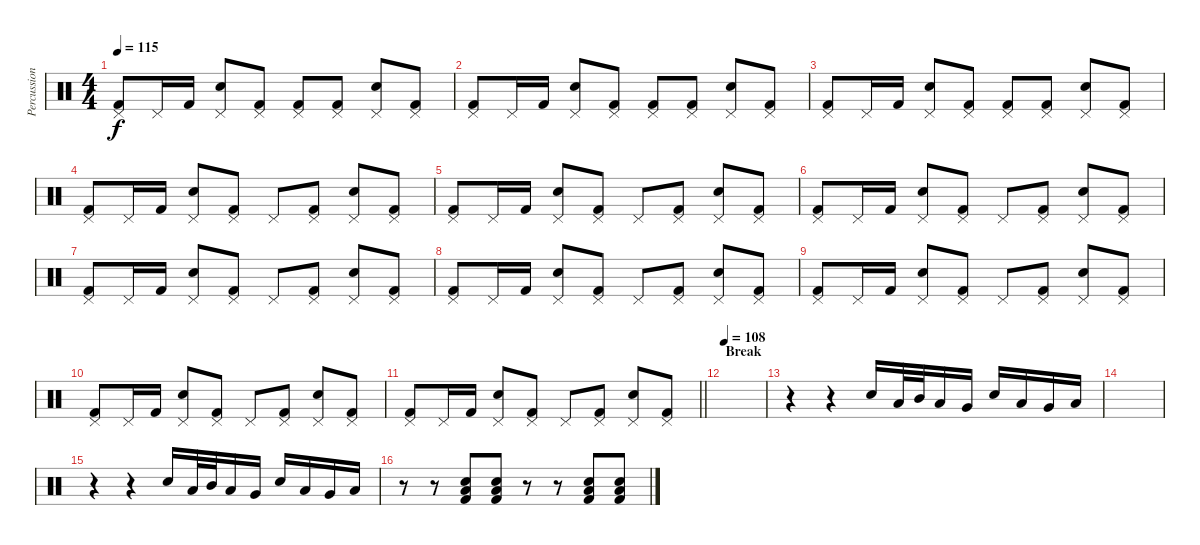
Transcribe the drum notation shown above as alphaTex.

\track ("Percussion" "Percussion") {instrument percussion}
\staff {score}
\articulation defaults
\ts (4 4)
\tempo 115
\clef neutral
\ks c
("Pedal Hi-Hat (hit)" "Kick (hit) 2").8{dy f} "Pedal Hi-Hat (hit)".16 "Kick (hit) 2".16 ("Pedal Hi-Hat (hit)" "Electric Snare (hit)").8 ("Pedal Hi-Hat (hit)" "Kick (hit) 2").8 ("Pedal Hi-Hat (hit)" "Kick (hit) 2").8 ("Pedal Hi-Hat (hit)" "Kick (hit) 2").8 ("Pedal Hi-Hat (hit)" "Electric Snare (hit)").8 ("Pedal Hi-Hat (hit)" "Kick (hit) 2").8 |
("Pedal Hi-Hat (hit)" "Kick (hit) 2").8 "Pedal Hi-Hat (hit)".16 "Kick (hit) 2".16 ("Pedal Hi-Hat (hit)" "Electric Snare (hit)").8 ("Pedal Hi-Hat (hit)" "Kick (hit) 2").8 ("Pedal Hi-Hat (hit)" "Kick (hit) 2").8 ("Pedal Hi-Hat (hit)" "Kick (hit) 2").8 ("Pedal Hi-Hat (hit)" "Electric Snare (hit)").8 ("Pedal Hi-Hat (hit)" "Kick (hit) 2").8 |
("Pedal Hi-Hat (hit)" "Kick (hit) 2").8 "Pedal Hi-Hat (hit)".16 "Kick (hit) 2".16 ("Pedal Hi-Hat (hit)" "Electric Snare (hit)").8 ("Pedal Hi-Hat (hit)" "Kick (hit) 2").8 ("Pedal Hi-Hat (hit)" "Kick (hit) 2").8 ("Pedal Hi-Hat (hit)" "Kick (hit) 2").8 ("Pedal Hi-Hat (hit)" "Electric Snare (hit)").8 ("Pedal Hi-Hat (hit)" "Kick (hit) 2").8 |
("Pedal Hi-Hat (hit)" "Kick (hit) 2").8 "Pedal Hi-Hat (hit)".16 "Kick (hit) 2".16 ("Pedal Hi-Hat (hit)" "Electric Snare (hit)").8 ("Pedal Hi-Hat (hit)" "Kick (hit) 2").8 "Pedal Hi-Hat (hit)".8 ("Pedal Hi-Hat (hit)" "Kick (hit) 2").8 ("Pedal Hi-Hat (hit)" "Electric Snare (hit)").8 ("Pedal Hi-Hat (hit)" "Kick (hit) 2").8 |
("Pedal Hi-Hat (hit)" "Kick (hit) 2").8 "Pedal Hi-Hat (hit)".16 "Kick (hit) 2".16 ("Pedal Hi-Hat (hit)" "Electric Snare (hit)").8 ("Pedal Hi-Hat (hit)" "Kick (hit) 2").8 "Pedal Hi-Hat (hit)".8 ("Pedal Hi-Hat (hit)" "Kick (hit) 2").8 ("Pedal Hi-Hat (hit)" "Electric Snare (hit)").8 ("Pedal Hi-Hat (hit)" "Kick (hit) 2").8 |
("Pedal Hi-Hat (hit)" "Kick (hit) 2").8 "Pedal Hi-Hat (hit)".16 "Kick (hit) 2".16 ("Pedal Hi-Hat (hit)" "Electric Snare (hit)").8 ("Pedal Hi-Hat (hit)" "Kick (hit) 2").8 "Pedal Hi-Hat (hit)".8 ("Pedal Hi-Hat (hit)" "Kick (hit) 2").8 ("Pedal Hi-Hat (hit)" "Electric Snare (hit)").8 ("Pedal Hi-Hat (hit)" "Kick (hit) 2").8 |
("Pedal Hi-Hat (hit)" "Kick (hit) 2").8 "Pedal Hi-Hat (hit)".16 "Kick (hit) 2".16 ("Pedal Hi-Hat (hit)" "Electric Snare (hit)").8 ("Pedal Hi-Hat (hit)" "Kick (hit) 2").8 "Pedal Hi-Hat (hit)".8 ("Pedal Hi-Hat (hit)" "Kick (hit) 2").8 ("Pedal Hi-Hat (hit)" "Electric Snare (hit)").8 ("Pedal Hi-Hat (hit)" "Kick (hit) 2").8 |
("Pedal Hi-Hat (hit)" "Kick (hit) 2").8 "Pedal Hi-Hat (hit)".16 "Kick (hit) 2".16 ("Pedal Hi-Hat (hit)" "Electric Snare (hit)").8 ("Pedal Hi-Hat (hit)" "Kick (hit) 2").8 "Pedal Hi-Hat (hit)".8 ("Pedal Hi-Hat (hit)" "Kick (hit) 2").8 ("Pedal Hi-Hat (hit)" "Electric Snare (hit)").8 ("Pedal Hi-Hat (hit)" "Kick (hit) 2").8 |
("Pedal Hi-Hat (hit)" "Kick (hit) 2").8 "Pedal Hi-Hat (hit)".16 "Kick (hit) 2".16 ("Pedal Hi-Hat (hit)" "Electric Snare (hit)").8 ("Pedal Hi-Hat (hit)" "Kick (hit) 2").8 "Pedal Hi-Hat (hit)".8 ("Pedal Hi-Hat (hit)" "Kick (hit) 2").8 ("Pedal Hi-Hat (hit)" "Electric Snare (hit)").8 ("Pedal Hi-Hat (hit)" "Kick (hit) 2").8 |
("Pedal Hi-Hat (hit)" "Kick (hit) 2").8 "Pedal Hi-Hat (hit)".16 "Kick (hit) 2".16 ("Pedal Hi-Hat (hit)" "Electric Snare (hit)").8 ("Pedal Hi-Hat (hit)" "Kick (hit) 2").8 "Pedal Hi-Hat (hit)".8 ("Pedal Hi-Hat (hit)" "Kick (hit) 2").8 ("Pedal Hi-Hat (hit)" "Electric Snare (hit)").8 ("Pedal Hi-Hat (hit)" "Kick (hit) 2").8 |
\barLineRight lightlight
("Pedal Hi-Hat (hit)" "Kick (hit) 2").8 "Pedal Hi-Hat (hit)".16 "Kick (hit) 2".16 ("Pedal Hi-Hat (hit)" "Electric Snare (hit)").8 ("Pedal Hi-Hat (hit)" "Kick (hit) 2").8 "Pedal Hi-Hat (hit)".8 ("Pedal Hi-Hat (hit)" "Kick (hit) 2").8 ("Pedal Hi-Hat (hit)" "Electric Snare (hit)").8 ("Pedal Hi-Hat (hit)" "Kick (hit) 2").8 |
\section ("" "Break")
\tempo 108
|
r.4 r.4 "Snare (hit) 2".16 "Low Tom (hit)".32 "Mid Tom (hit)".32 "Low Tom (hit)".16 "Very Low Tom (hit)".16 "Snare (hit) 2".16 "Low Tom (hit)".16 "Very Low Tom (hit)".16 "Low Floor Tom (hit)".16 |
|
r.4 r.4 "Snare (hit) 2".16 "Low Tom (hit)".32 "Mid Tom (hit)".32 "Low Tom (hit)".16 "Very Low Tom (hit)".16 "Snare (hit) 2".16 "Low Tom (hit)".16 "Very Low Tom (hit)".16 "Low Floor Tom (hit)".16 |
r.8 r.8 ("Low Floor Tom (hit)" "Electric Snare (hit)" "Kick (hit) 2").8 ("Low Floor Tom (hit)" "Electric Snare (hit)" "Kick (hit) 2").8 r.8 r.8 ("Low Floor Tom (hit)" "Electric Snare (hit)" "Kick (hit) 2").8 ("Low Floor Tom (hit)" "Electric Snare (hit)" "Kick (hit) 2").8
